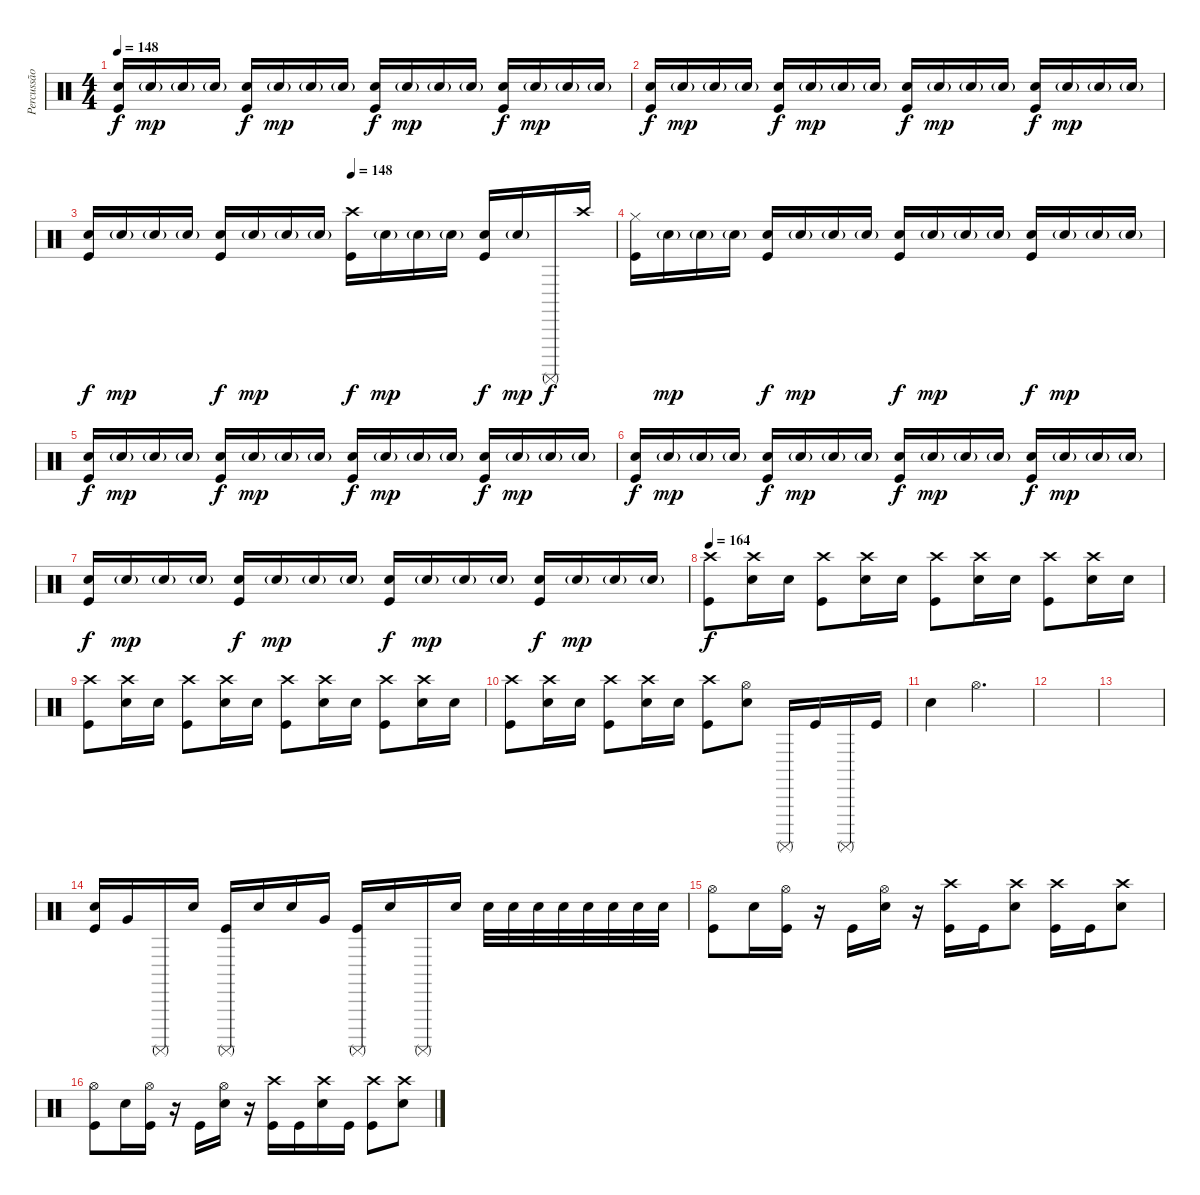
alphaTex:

\track ("Percussão" "Percussão") {instrument percussion}
\staff {score}
\articulation defaults
\ts (4 4)
\tempo 148
\clef neutral
\ks c
("Snare (hit) 2" "Kick (hit)").16{dy f} "Snare (hit) 2"{g}.16{dy mp} "Snare (hit) 2"{g}.16 "Snare (hit) 2"{g}.16 ("Snare (hit) 2" "Kick (hit)").16{dy f} "Snare (hit) 2"{g}.16{dy mp} "Snare (hit) 2"{g}.16 "Snare (hit) 2"{g}.16 ("Snare (hit) 2" "Kick (hit)").16{dy f} "Snare (hit) 2"{g}.16{dy mp} "Snare (hit) 2"{g}.16 "Snare (hit) 2"{g}.16 ("Snare (hit) 2" "Kick (hit)").16{dy f} "Snare (hit) 2"{g}.16{dy mp} "Snare (hit) 2"{g}.16 "Snare (hit) 2"{g}.16 |
("Snare (hit) 2" "Kick (hit)").16{dy f} "Snare (hit) 2"{g}.16{dy mp} "Snare (hit) 2"{g}.16 "Snare (hit) 2"{g}.16 ("Snare (hit) 2" "Kick (hit)").16{dy f} "Snare (hit) 2"{g}.16{dy mp} "Snare (hit) 2"{g}.16 "Snare (hit) 2"{g}.16 ("Snare (hit) 2" "Kick (hit)").16{dy f} "Snare (hit) 2"{g}.16{dy mp} "Snare (hit) 2"{g}.16 "Snare (hit) 2"{g}.16 ("Snare (hit) 2" "Kick (hit)").16{dy f} "Snare (hit) 2"{g}.16{dy mp} "Snare (hit) 2"{g}.16 "Snare (hit) 2"{g}.16 |
\tempo (148 0.5)
("Snare (hit) 2" "Kick (hit)").16{dy f} "Snare (hit) 2"{g}.16{dy mp} "Snare (hit) 2"{g}.16 "Snare (hit) 2"{g}.16 ("Snare (hit) 2" "Kick (hit)").16{dy f} "Snare (hit) 2"{g}.16{dy mp} "Snare (hit) 2"{g}.16 "Snare (hit) 2"{g}.16 ("Crash high (hit)" "Kick (hit)").16{dy f} "Snare (hit) 2"{g}.16{dy mp} "Snare (hit) 2"{g}.16 "Snare (hit) 2"{g}.16 ("Snare (hit) 2" "Kick (hit)").16{dy f} "Snare (hit) 2"{g}.16{dy mp} "Surdo (mute)".16{dy f} "Crash high (hit)".16 |
("Hi-Hat (closed)" "Kick (hit)").16 "Snare (hit) 2"{g}.16{dy mp} "Snare (hit) 2"{g}.16 "Snare (hit) 2"{g}.16 ("Snare (hit) 2" "Kick (hit)").16{dy f} "Snare (hit) 2"{g}.16{dy mp} "Snare (hit) 2"{g}.16 "Snare (hit) 2"{g}.16 ("Snare (hit) 2" "Kick (hit)").16{dy f} "Snare (hit) 2"{g}.16{dy mp} "Snare (hit) 2"{g}.16 "Snare (hit) 2"{g}.16 ("Snare (hit) 2" "Kick (hit)").16{dy f} "Snare (hit) 2"{g}.16{dy mp} "Snare (hit) 2"{g}.16 "Snare (hit) 2"{g}.16 |
("Snare (hit) 2" "Kick (hit)").16{dy f} "Snare (hit) 2"{g}.16{dy mp} "Snare (hit) 2"{g}.16 "Snare (hit) 2"{g}.16 ("Snare (hit) 2" "Kick (hit)").16{dy f} "Snare (hit) 2"{g}.16{dy mp} "Snare (hit) 2"{g}.16 "Snare (hit) 2"{g}.16 ("Snare (hit) 2" "Kick (hit)").16{dy f} "Snare (hit) 2"{g}.16{dy mp} "Snare (hit) 2"{g}.16 "Snare (hit) 2"{g}.16 ("Snare (hit) 2" "Kick (hit)").16{dy f} "Snare (hit) 2"{g}.16{dy mp} "Snare (hit) 2"{g}.16 "Snare (hit) 2"{g}.16 |
("Snare (hit) 2" "Kick (hit)").16{dy f} "Snare (hit) 2"{g}.16{dy mp} "Snare (hit) 2"{g}.16 "Snare (hit) 2"{g}.16 ("Snare (hit) 2" "Kick (hit)").16{dy f} "Snare (hit) 2"{g}.16{dy mp} "Snare (hit) 2"{g}.16 "Snare (hit) 2"{g}.16 ("Snare (hit) 2" "Kick (hit)").16{dy f} "Snare (hit) 2"{g}.16{dy mp} "Snare (hit) 2"{g}.16 "Snare (hit) 2"{g}.16 ("Snare (hit) 2" "Kick (hit)").16{dy f} "Snare (hit) 2"{g}.16{dy mp} "Snare (hit) 2"{g}.16 "Snare (hit) 2"{g}.16 |
("Snare (hit) 2" "Kick (hit)").16{dy f} "Snare (hit) 2"{g}.16{dy mp} "Snare (hit) 2"{g}.16 "Snare (hit) 2"{g}.16 ("Snare (hit) 2" "Kick (hit)").16{dy f} "Snare (hit) 2"{g}.16{dy mp} "Snare (hit) 2"{g}.16 "Snare (hit) 2"{g}.16 ("Snare (hit) 2" "Kick (hit)").16{dy f} "Snare (hit) 2"{g}.16{dy mp} "Snare (hit) 2"{g}.16 "Snare (hit) 2"{g}.16 ("Snare (hit) 2" "Kick (hit)").16{dy f} "Snare (hit) 2"{g}.16{dy mp} "Snare (hit) 2"{g}.16 "Snare (hit) 2"{g}.16 |
\tempo 164
("Crash high (hit)" "Kick (hit)").8{dy f} ("Crash high (hit)" "Electric Snare (hit)").16 "Electric Snare (hit)".16 ("Crash high (hit)" "Kick (hit)").8 ("Crash high (hit)" "Electric Snare (hit)").16 "Electric Snare (hit)".16 ("Crash high (hit)" "Kick (hit)").8 ("Crash high (hit)" "Electric Snare (hit)").16 "Electric Snare (hit)".16 ("Crash high (hit)" "Kick (hit)").8 ("Crash high (hit)" "Electric Snare (hit)").16 "Electric Snare (hit)".16 |
("Crash high (hit)" "Kick (hit)").8 ("Crash high (hit)" "Electric Snare (hit)").16 "Electric Snare (hit)".16 ("Crash high (hit)" "Kick (hit)").8 ("Crash high (hit)" "Electric Snare (hit)").16 "Electric Snare (hit)".16 ("Crash high (hit)" "Kick (hit)").8 ("Crash high (hit)" "Electric Snare (hit)").16 "Electric Snare (hit)".16 ("Crash high (hit)" "Kick (hit)").8 ("Crash high (hit)" "Electric Snare (hit)").16 "Electric Snare (hit)".16 |
("Crash high (hit)" "Kick (hit)").8 ("Crash high (hit)" "Electric Snare (hit)").16 "Electric Snare (hit)".16 ("Crash high (hit)" "Kick (hit)").8 ("Crash high (hit)" "Electric Snare (hit)").16 "Electric Snare (hit)".16 ("Crash high (hit)" "Kick (hit)").8 ("Hi-Hat (open)" "Electric Snare (hit)").8 "Surdo (mute)".16 "Kick (hit)".16 "Surdo (mute)".16 "Kick (hit)".16 |
"Electric Snare (hit)".4 "Hi-Hat (open)".2{d} |
|
|
("Electric Snare (hit)" "Kick (hit)").16 "Very Low Tom (hit)".16 "Surdo (mute)".16 "Electric Snare (hit)".16 ("Surdo (mute)" "Kick (hit)").16 "Electric Snare (hit)".16 "Electric Snare (hit)".16 "Very Low Tom (hit)".16 ("Surdo (mute)" "Kick (hit)").16 "Electric Snare (hit)".16 "Surdo (mute)".16 "Electric Snare (hit)".16 "Electric Snare (hit)".32 "Electric Snare (hit)".32 "Electric Snare (hit)".32 "Electric Snare (hit)".32 "Electric Snare (hit)".32 "Electric Snare (hit)".32 "Electric Snare (hit)".32 "Electric Snare (hit)".32 |
("Hi-Hat (open)" "Kick (hit)").8 "Electric Snare (hit)".16 ("Hi-Hat (open)" "Kick (hit)").16 r.16 "Kick (hit)".16 ("Hi-Hat (open)" "Electric Snare (hit)").16 r.16 ("Crash high (hit)" "Kick (hit)").16 "Kick (hit)".16 ("Crash high (hit)" "Electric Snare (hit)").8 ("Crash high (hit)" "Kick (hit)").16 "Kick (hit)".16 ("Crash high (hit)" "Electric Snare (hit)").8 |
("Hi-Hat (open)" "Kick (hit)").8 "Electric Snare (hit)".16 ("Hi-Hat (open)" "Kick (hit)").16 r.16 "Kick (hit)".16 ("Hi-Hat (open)" "Electric Snare (hit)").16 r.16 ("Crash high (hit)" "Kick (hit)").16 "Kick (hit)".16 ("Crash high (hit)" "Electric Snare (hit)").16 "Kick (hit)".16 ("Crash high (hit)" "Kick (hit)").8 ("Crash high (hit)" "Electric Snare (hit)").8
